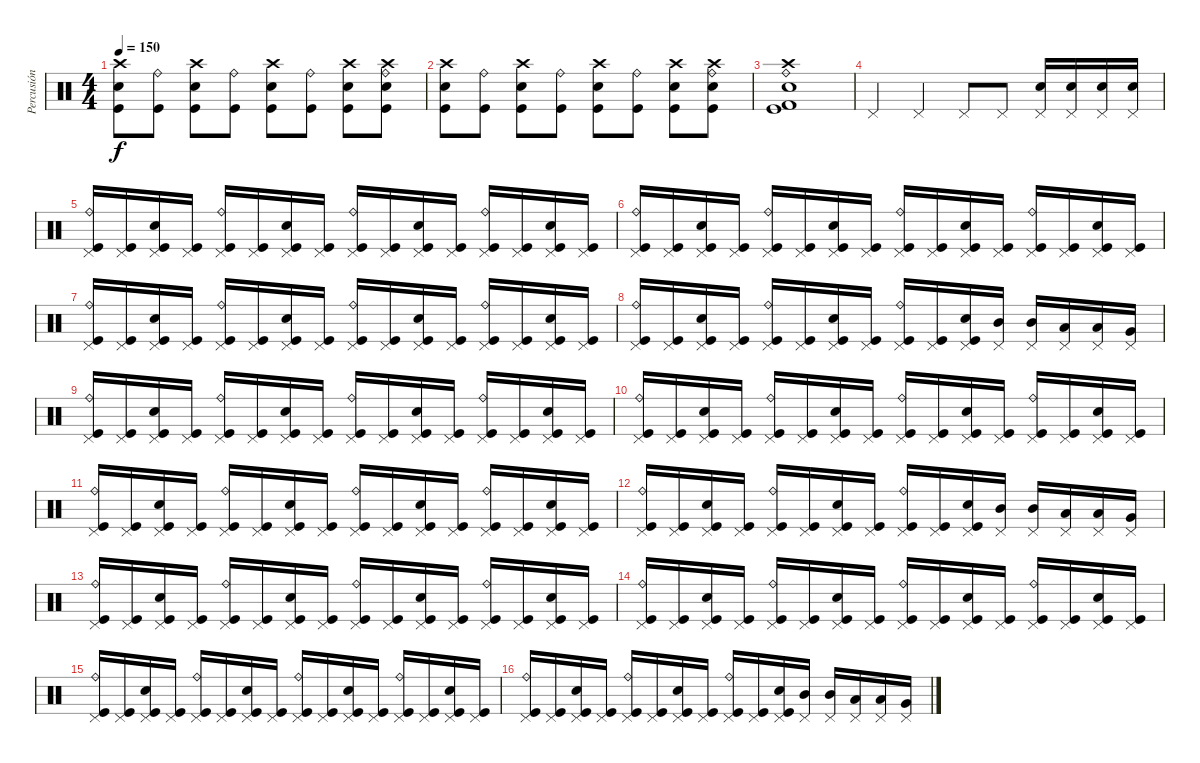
\track ("Percusión" "Percusión") {instrument percussion}
\staff {score}
\articulation defaults
\ts (4 4)
\tempo 150
\clef neutral
\ks c
("Crash high (hit)" "Electric Snare (hit)" "Kick (hit)").8{dy f} ("Ride (bell)" "Kick (hit)").8 ("Crash high (hit)" "Electric Snare (hit)" "Kick (hit)").8 ("Ride (bell)" "Kick (hit)").8 ("Crash high (hit)" "Electric Snare (hit)" "Kick (hit)").8 ("Ride (bell)" "Kick (hit)").8 ("Crash high (hit)" "Electric Snare (hit)" "Kick (hit)").8 ("Crash high (hit)" "Ride (bell)" "Electric Snare (hit)" "Kick (hit)").8 |
("Crash high (hit)" "Electric Snare (hit)" "Kick (hit)").8 ("Ride (bell)" "Kick (hit)").8 ("Crash high (hit)" "Electric Snare (hit)" "Kick (hit)").8 ("Ride (bell)" "Kick (hit)").8 ("Crash high (hit)" "Electric Snare (hit)" "Kick (hit)").8 ("Ride (bell)" "Kick (hit)").8 ("Crash high (hit)" "Electric Snare (hit)" "Kick (hit)").8 ("Crash high (hit)" "Ride (bell)" "Electric Snare (hit)" "Kick (hit)").8 |
("Crash high (hit)" "Kick (hit) 2" "Ride (bell)" "Electric Snare (hit)" "Kick (hit)").1 |
"Pedal Hi-Hat (hit)".4 "Pedal Hi-Hat (hit)".4 "Pedal Hi-Hat (hit)".8 "Pedal Hi-Hat (hit)".8 ("Pedal Hi-Hat (hit)" "Electric Snare (hit)").16 ("Pedal Hi-Hat (hit)" "Electric Snare (hit)").16 ("Pedal Hi-Hat (hit)" "Electric Snare (hit)").16 ("Pedal Hi-Hat (hit)" "Electric Snare (hit)").16 |
("Pedal Hi-Hat (hit)" "Ride (bell)" "Kick (hit)").16 ("Pedal Hi-Hat (hit)" "Kick (hit)").16 ("Pedal Hi-Hat (hit)" "Electric Snare (hit)" "Kick (hit)").16 ("Pedal Hi-Hat (hit)" "Kick (hit)").16 ("Pedal Hi-Hat (hit)" "Ride (bell)" "Kick (hit)").16 ("Pedal Hi-Hat (hit)" "Kick (hit)").16 ("Pedal Hi-Hat (hit)" "Electric Snare (hit)" "Kick (hit)").16 ("Pedal Hi-Hat (hit)" "Kick (hit)").16 ("Pedal Hi-Hat (hit)" "Ride (bell)" "Kick (hit)").16 ("Pedal Hi-Hat (hit)" "Kick (hit)").16 ("Pedal Hi-Hat (hit)" "Electric Snare (hit)" "Kick (hit)").16 ("Pedal Hi-Hat (hit)" "Kick (hit)").16 ("Pedal Hi-Hat (hit)" "Ride (bell)" "Kick (hit)").16 ("Pedal Hi-Hat (hit)" "Kick (hit)").16 ("Pedal Hi-Hat (hit)" "Electric Snare (hit)" "Kick (hit)").16 ("Pedal Hi-Hat (hit)" "Kick (hit)").16 |
("Pedal Hi-Hat (hit)" "Ride (bell)" "Kick (hit)").16 ("Pedal Hi-Hat (hit)" "Kick (hit)").16 ("Pedal Hi-Hat (hit)" "Electric Snare (hit)" "Kick (hit)").16 ("Pedal Hi-Hat (hit)" "Kick (hit)").16 ("Pedal Hi-Hat (hit)" "Ride (bell)" "Kick (hit)").16 ("Pedal Hi-Hat (hit)" "Kick (hit)").16 ("Pedal Hi-Hat (hit)" "Electric Snare (hit)" "Kick (hit)").16 ("Pedal Hi-Hat (hit)" "Kick (hit)").16 ("Pedal Hi-Hat (hit)" "Ride (bell)" "Kick (hit)").16 ("Pedal Hi-Hat (hit)" "Kick (hit)").16 ("Pedal Hi-Hat (hit)" "Electric Snare (hit)" "Kick (hit)").16 ("Pedal Hi-Hat (hit)" "Kick (hit)").16 ("Pedal Hi-Hat (hit)" "Ride (bell)" "Kick (hit)").16 ("Pedal Hi-Hat (hit)" "Kick (hit)").16 ("Pedal Hi-Hat (hit)" "Electric Snare (hit)" "Kick (hit)").16 ("Pedal Hi-Hat (hit)" "Kick (hit)").16 |
("Pedal Hi-Hat (hit)" "Ride (bell)" "Kick (hit)").16 ("Pedal Hi-Hat (hit)" "Kick (hit)").16 ("Pedal Hi-Hat (hit)" "Electric Snare (hit)" "Kick (hit)").16 ("Pedal Hi-Hat (hit)" "Kick (hit)").16 ("Pedal Hi-Hat (hit)" "Ride (bell)" "Kick (hit)").16 ("Pedal Hi-Hat (hit)" "Kick (hit)").16 ("Pedal Hi-Hat (hit)" "Electric Snare (hit)" "Kick (hit)").16 ("Pedal Hi-Hat (hit)" "Kick (hit)").16 ("Pedal Hi-Hat (hit)" "Ride (bell)" "Kick (hit)").16 ("Pedal Hi-Hat (hit)" "Kick (hit)").16 ("Pedal Hi-Hat (hit)" "Electric Snare (hit)" "Kick (hit)").16 ("Pedal Hi-Hat (hit)" "Kick (hit)").16 ("Pedal Hi-Hat (hit)" "Ride (bell)" "Kick (hit)").16 ("Pedal Hi-Hat (hit)" "Kick (hit)").16 ("Pedal Hi-Hat (hit)" "Electric Snare (hit)" "Kick (hit)").16 ("Pedal Hi-Hat (hit)" "Kick (hit)").16 |
("Pedal Hi-Hat (hit)" "Ride (bell)" "Kick (hit)").16 ("Pedal Hi-Hat (hit)" "Kick (hit)").16 ("Pedal Hi-Hat (hit)" "Electric Snare (hit)" "Kick (hit)").16 ("Pedal Hi-Hat (hit)" "Kick (hit)").16 ("Pedal Hi-Hat (hit)" "Ride (bell)" "Kick (hit)").16 ("Pedal Hi-Hat (hit)" "Kick (hit)").16 ("Pedal Hi-Hat (hit)" "Electric Snare (hit)" "Kick (hit)").16 ("Pedal Hi-Hat (hit)" "Kick (hit)").16 ("Pedal Hi-Hat (hit)" "Ride (bell)" "Kick (hit)").16 ("Pedal Hi-Hat (hit)" "Kick (hit)").16 ("Pedal Hi-Hat (hit)" "Electric Snare (hit)" "Kick (hit)").16 ("Pedal Hi-Hat (hit)" "Mid Tom (hit)").16 ("Pedal Hi-Hat (hit)" "Mid Tom (hit)").16 ("Pedal Hi-Hat (hit)" "Low Tom (hit)").16 ("Pedal Hi-Hat (hit)" "Low Tom (hit)").16 ("Pedal Hi-Hat (hit)" "Very Low Tom (hit)").16 |
("Pedal Hi-Hat (hit)" "Ride (bell)" "Kick (hit)").16 ("Pedal Hi-Hat (hit)" "Kick (hit)").16 ("Pedal Hi-Hat (hit)" "Electric Snare (hit)" "Kick (hit)").16 ("Pedal Hi-Hat (hit)" "Kick (hit)").16 ("Pedal Hi-Hat (hit)" "Ride (bell)" "Kick (hit)").16 ("Pedal Hi-Hat (hit)" "Kick (hit)").16 ("Pedal Hi-Hat (hit)" "Electric Snare (hit)" "Kick (hit)").16 ("Pedal Hi-Hat (hit)" "Kick (hit)").16 ("Pedal Hi-Hat (hit)" "Ride (bell)" "Kick (hit)").16 ("Pedal Hi-Hat (hit)" "Kick (hit)").16 ("Pedal Hi-Hat (hit)" "Electric Snare (hit)" "Kick (hit)").16 ("Pedal Hi-Hat (hit)" "Kick (hit)").16 ("Pedal Hi-Hat (hit)" "Ride (bell)" "Kick (hit)").16 ("Pedal Hi-Hat (hit)" "Kick (hit)").16 ("Pedal Hi-Hat (hit)" "Electric Snare (hit)" "Kick (hit)").16 ("Pedal Hi-Hat (hit)" "Kick (hit)").16 |
("Pedal Hi-Hat (hit)" "Ride (bell)" "Kick (hit)").16 ("Pedal Hi-Hat (hit)" "Kick (hit)").16 ("Pedal Hi-Hat (hit)" "Electric Snare (hit)" "Kick (hit)").16 ("Pedal Hi-Hat (hit)" "Kick (hit)").16 ("Pedal Hi-Hat (hit)" "Ride (bell)" "Kick (hit)").16 ("Pedal Hi-Hat (hit)" "Kick (hit)").16 ("Pedal Hi-Hat (hit)" "Electric Snare (hit)" "Kick (hit)").16 ("Pedal Hi-Hat (hit)" "Kick (hit)").16 ("Pedal Hi-Hat (hit)" "Ride (bell)" "Kick (hit)").16 ("Pedal Hi-Hat (hit)" "Kick (hit)").16 ("Pedal Hi-Hat (hit)" "Electric Snare (hit)" "Kick (hit)").16 ("Pedal Hi-Hat (hit)" "Kick (hit)").16 ("Pedal Hi-Hat (hit)" "Ride (bell)" "Kick (hit)").16 ("Pedal Hi-Hat (hit)" "Kick (hit)").16 ("Pedal Hi-Hat (hit)" "Electric Snare (hit)" "Kick (hit)").16 ("Pedal Hi-Hat (hit)" "Kick (hit)").16 |
("Pedal Hi-Hat (hit)" "Ride (bell)" "Kick (hit)").16 ("Pedal Hi-Hat (hit)" "Kick (hit)").16 ("Pedal Hi-Hat (hit)" "Electric Snare (hit)" "Kick (hit)").16 ("Pedal Hi-Hat (hit)" "Kick (hit)").16 ("Pedal Hi-Hat (hit)" "Ride (bell)" "Kick (hit)").16 ("Pedal Hi-Hat (hit)" "Kick (hit)").16 ("Pedal Hi-Hat (hit)" "Electric Snare (hit)" "Kick (hit)").16 ("Pedal Hi-Hat (hit)" "Kick (hit)").16 ("Pedal Hi-Hat (hit)" "Ride (bell)" "Kick (hit)").16 ("Pedal Hi-Hat (hit)" "Kick (hit)").16 ("Pedal Hi-Hat (hit)" "Electric Snare (hit)" "Kick (hit)").16 ("Pedal Hi-Hat (hit)" "Kick (hit)").16 ("Pedal Hi-Hat (hit)" "Ride (bell)" "Kick (hit)").16 ("Pedal Hi-Hat (hit)" "Kick (hit)").16 ("Pedal Hi-Hat (hit)" "Electric Snare (hit)" "Kick (hit)").16 ("Pedal Hi-Hat (hit)" "Kick (hit)").16 |
("Pedal Hi-Hat (hit)" "Ride (bell)" "Kick (hit)").16 ("Pedal Hi-Hat (hit)" "Kick (hit)").16 ("Pedal Hi-Hat (hit)" "Electric Snare (hit)" "Kick (hit)").16 ("Pedal Hi-Hat (hit)" "Kick (hit)").16 ("Pedal Hi-Hat (hit)" "Ride (bell)" "Kick (hit)").16 ("Pedal Hi-Hat (hit)" "Kick (hit)").16 ("Pedal Hi-Hat (hit)" "Electric Snare (hit)" "Kick (hit)").16 ("Pedal Hi-Hat (hit)" "Kick (hit)").16 ("Pedal Hi-Hat (hit)" "Ride (bell)" "Kick (hit)").16 ("Pedal Hi-Hat (hit)" "Kick (hit)").16 ("Pedal Hi-Hat (hit)" "Electric Snare (hit)" "Kick (hit)").16 ("Pedal Hi-Hat (hit)" "Mid Tom (hit)").16 ("Pedal Hi-Hat (hit)" "Mid Tom (hit)").16 ("Pedal Hi-Hat (hit)" "Low Tom (hit)").16 ("Pedal Hi-Hat (hit)" "Low Tom (hit)").16 ("Pedal Hi-Hat (hit)" "Very Low Tom (hit)").16 |
("Pedal Hi-Hat (hit)" "Ride (bell)" "Kick (hit)").16 ("Pedal Hi-Hat (hit)" "Kick (hit)").16 ("Pedal Hi-Hat (hit)" "Electric Snare (hit)" "Kick (hit)").16 ("Pedal Hi-Hat (hit)" "Kick (hit)").16 ("Pedal Hi-Hat (hit)" "Ride (bell)" "Kick (hit)").16 ("Pedal Hi-Hat (hit)" "Kick (hit)").16 ("Pedal Hi-Hat (hit)" "Electric Snare (hit)" "Kick (hit)").16 ("Pedal Hi-Hat (hit)" "Kick (hit)").16 ("Pedal Hi-Hat (hit)" "Ride (bell)" "Kick (hit)").16 ("Pedal Hi-Hat (hit)" "Kick (hit)").16 ("Pedal Hi-Hat (hit)" "Electric Snare (hit)" "Kick (hit)").16 ("Pedal Hi-Hat (hit)" "Kick (hit)").16 ("Pedal Hi-Hat (hit)" "Ride (bell)" "Kick (hit)").16 ("Pedal Hi-Hat (hit)" "Kick (hit)").16 ("Pedal Hi-Hat (hit)" "Electric Snare (hit)" "Kick (hit)").16 ("Pedal Hi-Hat (hit)" "Kick (hit)").16 |
("Pedal Hi-Hat (hit)" "Ride (bell)" "Kick (hit)").16 ("Pedal Hi-Hat (hit)" "Kick (hit)").16 ("Pedal Hi-Hat (hit)" "Electric Snare (hit)" "Kick (hit)").16 ("Pedal Hi-Hat (hit)" "Kick (hit)").16 ("Pedal Hi-Hat (hit)" "Ride (bell)" "Kick (hit)").16 ("Pedal Hi-Hat (hit)" "Kick (hit)").16 ("Pedal Hi-Hat (hit)" "Electric Snare (hit)" "Kick (hit)").16 ("Pedal Hi-Hat (hit)" "Kick (hit)").16 ("Pedal Hi-Hat (hit)" "Ride (bell)" "Kick (hit)").16 ("Pedal Hi-Hat (hit)" "Kick (hit)").16 ("Pedal Hi-Hat (hit)" "Electric Snare (hit)" "Kick (hit)").16 ("Pedal Hi-Hat (hit)" "Kick (hit)").16 ("Pedal Hi-Hat (hit)" "Ride (bell)" "Kick (hit)").16 ("Pedal Hi-Hat (hit)" "Kick (hit)").16 ("Pedal Hi-Hat (hit)" "Electric Snare (hit)" "Kick (hit)").16 ("Pedal Hi-Hat (hit)" "Kick (hit)").16 |
("Pedal Hi-Hat (hit)" "Ride (bell)" "Kick (hit)").16 ("Pedal Hi-Hat (hit)" "Kick (hit)").16 ("Pedal Hi-Hat (hit)" "Electric Snare (hit)" "Kick (hit)").16 ("Pedal Hi-Hat (hit)" "Kick (hit)").16 ("Pedal Hi-Hat (hit)" "Ride (bell)" "Kick (hit)").16 ("Pedal Hi-Hat (hit)" "Kick (hit)").16 ("Pedal Hi-Hat (hit)" "Electric Snare (hit)" "Kick (hit)").16 ("Pedal Hi-Hat (hit)" "Kick (hit)").16 ("Pedal Hi-Hat (hit)" "Ride (bell)" "Kick (hit)").16 ("Pedal Hi-Hat (hit)" "Kick (hit)").16 ("Pedal Hi-Hat (hit)" "Electric Snare (hit)" "Kick (hit)").16 ("Pedal Hi-Hat (hit)" "Kick (hit)").16 ("Pedal Hi-Hat (hit)" "Ride (bell)" "Kick (hit)").16 ("Pedal Hi-Hat (hit)" "Kick (hit)").16 ("Pedal Hi-Hat (hit)" "Electric Snare (hit)" "Kick (hit)").16 ("Pedal Hi-Hat (hit)" "Kick (hit)").16 |
("Pedal Hi-Hat (hit)" "Ride (bell)" "Kick (hit)").16 ("Pedal Hi-Hat (hit)" "Kick (hit)").16 ("Pedal Hi-Hat (hit)" "Electric Snare (hit)" "Kick (hit)").16 ("Pedal Hi-Hat (hit)" "Kick (hit)").16 ("Pedal Hi-Hat (hit)" "Ride (bell)" "Kick (hit)").16 ("Pedal Hi-Hat (hit)" "Kick (hit)").16 ("Pedal Hi-Hat (hit)" "Electric Snare (hit)" "Kick (hit)").16 ("Pedal Hi-Hat (hit)" "Kick (hit)").16 ("Pedal Hi-Hat (hit)" "Ride (bell)" "Kick (hit)").16 ("Pedal Hi-Hat (hit)" "Kick (hit)").16 ("Pedal Hi-Hat (hit)" "Electric Snare (hit)" "Kick (hit)").16 ("Pedal Hi-Hat (hit)" "Mid Tom (hit)").16 ("Pedal Hi-Hat (hit)" "Mid Tom (hit)").16 ("Pedal Hi-Hat (hit)" "Low Tom (hit)").16 ("Pedal Hi-Hat (hit)" "Low Tom (hit)").16 ("Pedal Hi-Hat (hit)" "Very Low Tom (hit)").16
